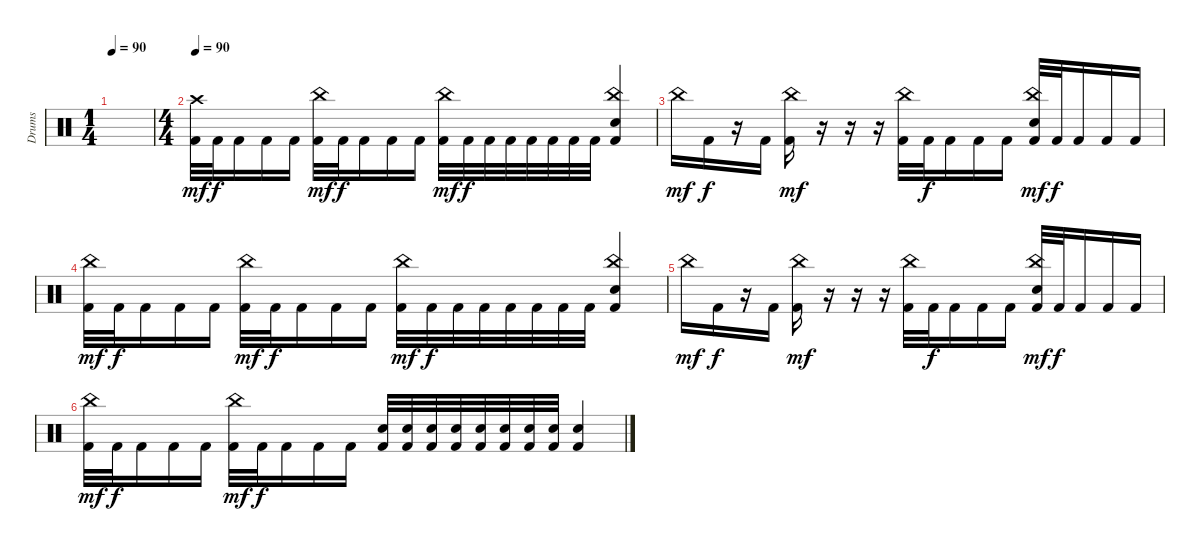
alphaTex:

\track ("Drums" "Drums") {instrument percussion}
\staff {score}
\articulation defaults
\ts (1 4)
\tempo 90
\clef neutral
\ks c
|
\ts (4 4)
\tempo 90
("Crash high (hit)" "Kick (hit) 2").32{dy mf} "Kick (hit) 2".32{dy f} "Kick (hit) 2".16 "Kick (hit) 2".16 "Kick (hit) 2".16 ("China (hit)" "Kick (hit) 2").32{dy mf} "Kick (hit) 2".32{dy f} "Kick (hit) 2".16 "Kick (hit) 2".16 "Kick (hit) 2".16 ("China (hit)" "Kick (hit) 2").32{dy mf} "Kick (hit) 2".32{dy f} "Kick (hit) 2".32 "Kick (hit) 2".32 "Kick (hit) 2".32 "Kick (hit) 2".32 "Kick (hit) 2".32 "Kick (hit) 2".32 ("China (hit)" "Electric Snare (hit)" "Kick (hit) 2").4 |
"China (hit)".16{dy mf} "Kick (hit) 2".16{dy f} r.16 "Kick (hit) 2".16 ("China (hit)" "Kick (hit) 2").16{dy mf} r.16 r.16 r.16 ("China (hit)" "Kick (hit) 2").32 "Kick (hit) 2".32{dy f} "Kick (hit) 2".16 "Kick (hit) 2".16 "Kick (hit) 2".16 ("China (hit)" "Electric Snare (hit)" "Kick (hit) 2").32{dy mf} "Kick (hit) 2".32{dy f} "Kick (hit) 2".16 "Kick (hit) 2".16 "Kick (hit) 2".16 |
("China (hit)" "Kick (hit) 2").32{dy mf} "Kick (hit) 2".32{dy f} "Kick (hit) 2".16 "Kick (hit) 2".16 "Kick (hit) 2".16 ("China (hit)" "Kick (hit) 2").32{dy mf} "Kick (hit) 2".32{dy f} "Kick (hit) 2".16 "Kick (hit) 2".16 "Kick (hit) 2".16 ("China (hit)" "Kick (hit) 2").32{dy mf} "Kick (hit) 2".32{dy f} "Kick (hit) 2".32 "Kick (hit) 2".32 "Kick (hit) 2".32 "Kick (hit) 2".32 "Kick (hit) 2".32 "Kick (hit) 2".32 ("China (hit)" "Electric Snare (hit)" "Kick (hit) 2").4 |
"China (hit)".16{dy mf} "Kick (hit) 2".16{dy f} r.16 "Kick (hit) 2".16 ("China (hit)" "Kick (hit) 2").16{dy mf} r.16 r.16 r.16 ("China (hit)" "Kick (hit) 2").32 "Kick (hit) 2".32{dy f} "Kick (hit) 2".16 "Kick (hit) 2".16 "Kick (hit) 2".16 ("China (hit)" "Electric Snare (hit)" "Kick (hit) 2").32{dy mf} "Kick (hit) 2".32{dy f} "Kick (hit) 2".16 "Kick (hit) 2".16 "Kick (hit) 2".16 |
("China (hit)" "Kick (hit) 2").32{dy mf} "Kick (hit) 2".32{dy f} "Kick (hit) 2".16 "Kick (hit) 2".16 "Kick (hit) 2".16 ("China (hit)" "Kick (hit) 2").32{dy mf} "Kick (hit) 2".32{dy f} "Kick (hit) 2".16 "Kick (hit) 2".16 "Kick (hit) 2".16 ("Electric Snare (hit)" "Kick (hit) 2").32 ("Electric Snare (hit)" "Kick (hit) 2").32 ("Electric Snare (hit)" "Kick (hit) 2").32 ("Electric Snare (hit)" "Kick (hit) 2").32 ("Electric Snare (hit)" "Kick (hit) 2").32 ("Electric Snare (hit)" "Kick (hit) 2").32 ("Electric Snare (hit)" "Kick (hit) 2").32 ("Electric Snare (hit)" "Kick (hit) 2").32 ("Electric Snare (hit)" "Kick (hit) 2").4
